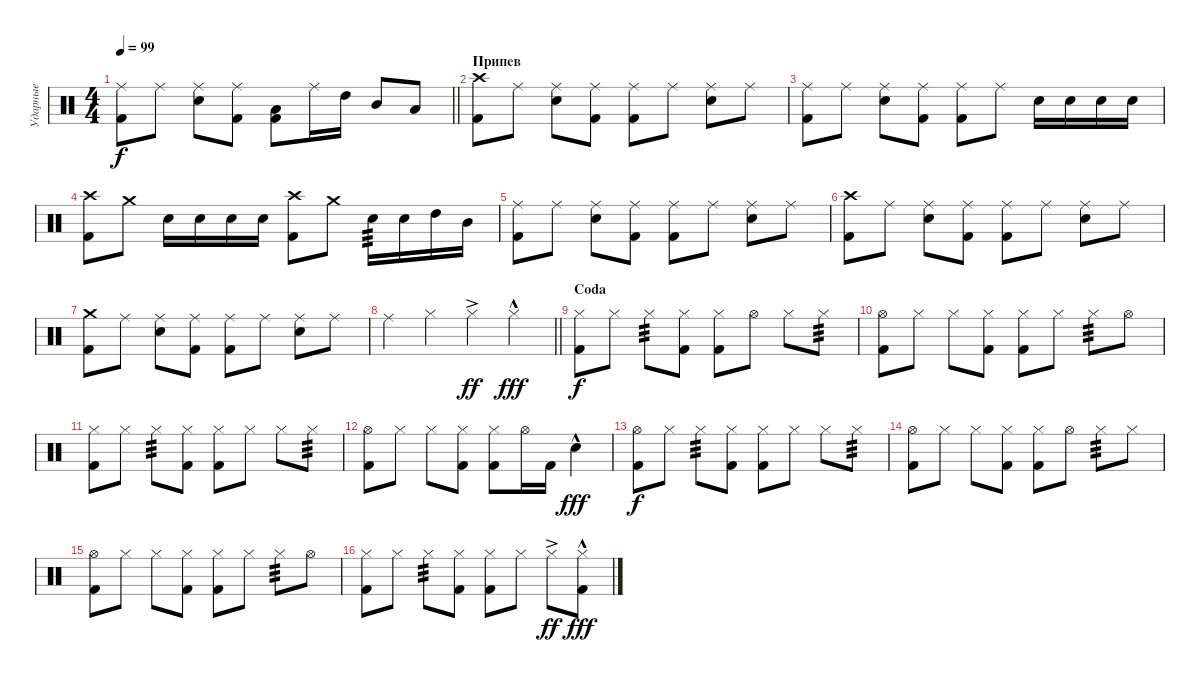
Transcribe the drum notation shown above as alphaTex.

\track ("Ударные" "Ударные") {instrument percussion}
\staff
\articulation defaults
\ts (4 4)
\tempo 99
\clef neutral
\barLineRight lightlight
\ks c
("Ride (middle)" "Kick (hit) 2").8{dy f} "Ride (middle)".8 ("Ride (middle)" "Electric Snare (hit)").8 ("Ride (middle)" "Kick (hit) 2").8 ("Low Tom (hit)" "Kick (hit) 2").8 "Ride (middle)".16 "High Tom (hit)".16 "Mid Tom (hit)".8 "Low Tom (hit)".8 |
\section ("" "Припев")
("Crash high (hit)" "Kick (hit) 2").8 "Ride (middle)".8 ("Ride (middle)" "Electric Snare (hit)").8 ("Ride (middle)" "Kick (hit) 2").8 ("Ride (middle)" "Kick (hit) 2").8 "Ride (middle)".8 ("Ride (middle)" "Electric Snare (hit)").8 "Ride (middle)".8 |
("Ride (middle)" "Kick (hit) 2").8 "Ride (middle)".8 ("Ride (middle)" "Electric Snare (hit)").8 ("Ride (middle)" "Kick (hit) 2").8 ("Ride (middle)" "Kick (hit) 2").8 "Ride (middle)".8 "Electric Snare (hit)".16 "Electric Snare (hit)".16 "Electric Snare (hit)".16 "Electric Snare (hit)".16 |
("Crash high (hit)" "Kick (hit) 2").8 "Crash medium (hit)".8 "Electric Snare (hit)".16 "Electric Snare (hit)".16 "Electric Snare (hit)".16 "Electric Snare (hit)".16 ("Crash high (hit)" "Kick (hit) 2").8 "Crash medium (hit)".8 "Electric Snare (hit)".16{tp 3} "Electric Snare (hit)".16 "High Tom (hit)".16 "Mid Tom (hit)".16 |
("Ride (middle)" "Kick (hit) 2").8 "Ride (middle)".8 ("Ride (middle)" "Electric Snare (hit)").8 ("Ride (middle)" "Kick (hit) 2").8 ("Ride (middle)" "Kick (hit) 2").8 "Ride (middle)".8 ("Ride (middle)" "Electric Snare (hit)").8 "Ride (middle)".8 |
("Crash high (hit)" "Kick (hit) 2").8 "Ride (middle)".8 ("Ride (middle)" "Electric Snare (hit)").8 ("Ride (middle)" "Kick (hit) 2").8 ("Ride (middle)" "Kick (hit) 2").8 "Ride (middle)".8 ("Ride (middle)" "Electric Snare (hit)").8 "Ride (middle)".8 |
("Crash medium (hit)" "Kick (hit) 2").8 "Ride (middle)".8 ("Ride (middle)" "Electric Snare (hit)").8 ("Ride (middle)" "Kick (hit) 2").8 ("Ride (middle)" "Kick (hit) 2").8 "Ride (middle)".8 ("Ride (middle)" "Electric Snare (hit)").8 "Ride (middle)".8 |
\barLineRight lightlight "Ride (middle)".4 "Hi-Hat (closed)".4 "Hi-Hat (closed)"{ac}.4{dy ff} "Hi-Hat (closed)"{hac}.4{dy fff}
|
\section ("" "Coda")
("Hi-Hat (closed)" "Kick (hit) 2").8{dy f} "Hi-Hat (closed)".8 "Hi-Hat (closed)".8{tp 3} ("Hi-Hat (closed)" "Kick (hit) 2").8 ("Hi-Hat (closed)" "Kick (hit) 2").8 "Hi-Hat (open)".8 "Hi-Hat (closed)".8 "Hi-Hat (closed)".8{tp 3} |
("Hi-Hat (open)" "Kick (hit) 2").8 "Hi-Hat (closed)".8 "Hi-Hat (closed)".8 ("Hi-Hat (closed)" "Kick (hit) 2").8 ("Hi-Hat (closed)" "Kick (hit) 2").8 "Hi-Hat (closed)".8 "Hi-Hat (closed)".8{tp 3} "Hi-Hat (open)".8 |
("Hi-Hat (closed)" "Kick (hit) 2").8 "Hi-Hat (closed)".8 "Hi-Hat (closed)".8{tp 3} ("Hi-Hat (closed)" "Kick (hit) 2").8 ("Hi-Hat (closed)" "Kick (hit) 2").8 "Hi-Hat (closed)".8 "Hi-Hat (closed)".8 "Hi-Hat (closed)".8{tp 3} |
("Hi-Hat (open)" "Kick (hit) 2").8 "Hi-Hat (closed)".8 "Hi-Hat (closed)".8 ("Hi-Hat (closed)" "Kick (hit) 2").8 ("Hi-Hat (closed)" "Kick (hit) 2").8 "Hi-Hat (open)".16 "Kick (hit) 2".16 "Electric Snare (hit)"{hac}.4{dy fff} |
("Hi-Hat (open)" "Kick (hit) 2").8{dy f} "Hi-Hat (closed)".8 "Hi-Hat (closed)".8{tp 3} ("Hi-Hat (closed)" "Kick (hit) 2").8 ("Hi-Hat (closed)" "Kick (hit) 2").8 "Hi-Hat (closed)".8 "Hi-Hat (closed)".8 "Hi-Hat (closed)".8{tp 3} |
("Hi-Hat (open)" "Kick (hit) 2").8 "Hi-Hat (closed)".8 "Hi-Hat (closed)".8 ("Hi-Hat (closed)" "Kick (hit) 2").8 ("Hi-Hat (closed)" "Kick (hit) 2").8 "Hi-Hat (open)".8 "Hi-Hat (closed)".8{tp 3} "Hi-Hat (closed)".8 |
("Hi-Hat (open)" "Kick (hit) 2").8 "Hi-Hat (closed)".8 "Hi-Hat (closed)".8 ("Hi-Hat (closed)" "Kick (hit) 2").8 ("Hi-Hat (closed)" "Kick (hit) 2").8 "Hi-Hat (closed)".8 "Hi-Hat (closed)".8{tp 3} "Hi-Hat (open)".8 |
("Hi-Hat (closed)" "Kick (hit) 2").8 "Hi-Hat (closed)".8 "Hi-Hat (closed)".8{tp 3} ("Hi-Hat (closed)" "Kick (hit) 2").8 ("Hi-Hat (closed)" "Kick (hit) 2").8 "Hi-Hat (closed)".8 "Hi-Hat (closed)"{ac}.8{dy ff} ("Hi-Hat (closed)"{hac} "Kick (hit) 2").8{dy fff}
